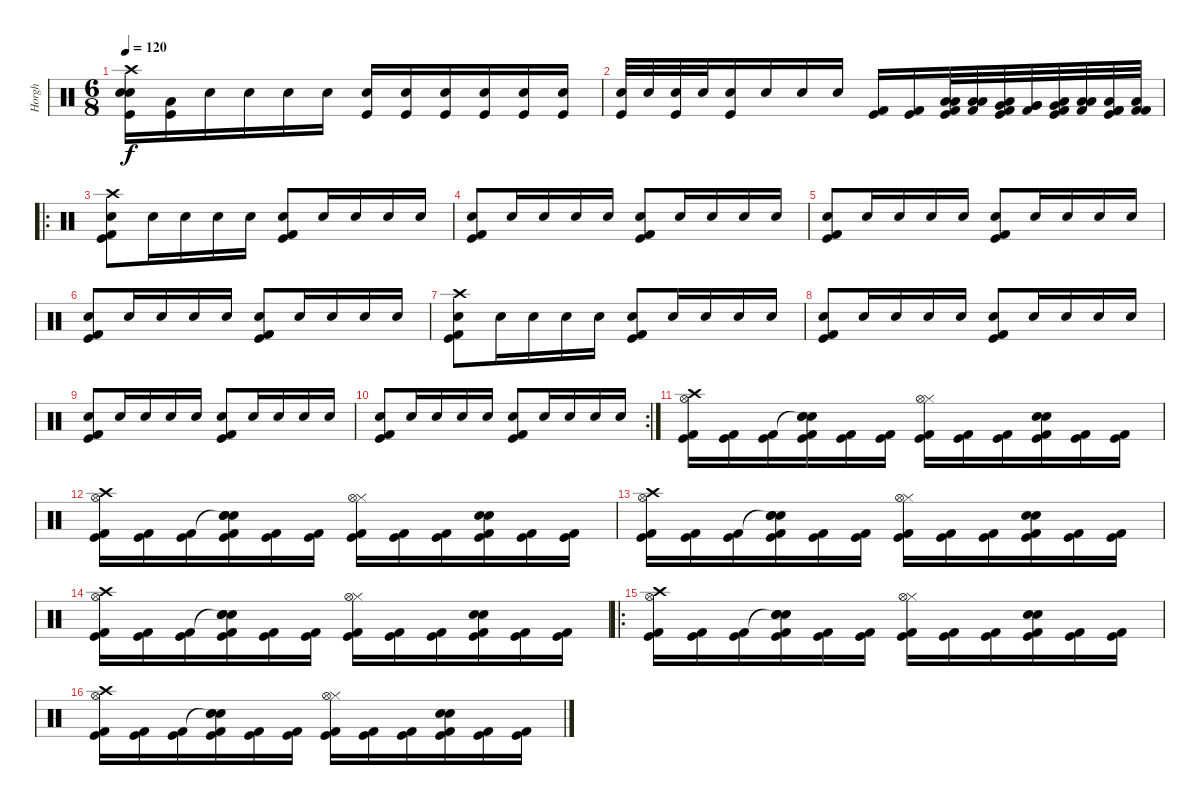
\track ("Horgh" "Horgh") {instrument percussion}
\staff {score}
\articulation defaults
\ts (6 8)
\tempo 120
\clef neutral
\ks c
("Crash high (hit)" "Snare (hit) 2" "Electric Snare (hit)" "Kick (hit)").16{dy f} ("Low Floor Tom (hit)" "Kick (hit)").16 "Electric Snare (hit)".16 "Electric Snare (hit)".16 "Electric Snare (hit)".16 "Electric Snare (hit)".16 ("Snare (hit) 2" "Kick (hit)").16 ("Snare (hit) 2" "Kick (hit)").16 ("Snare (hit) 2" "Kick (hit)").16 ("Snare (hit) 2" "Kick (hit)").16 ("Snare (hit) 2" "Kick (hit)").16 ("Snare (hit) 2" "Kick (hit)").16 |
("Electric Snare (hit)" "Kick (hit)").32 "Electric Snare (hit)".32 ("Electric Snare (hit)" "Kick (hit)").32 "Electric Snare (hit)".32 ("Electric Snare (hit)" "Kick (hit)").16 "Electric Snare (hit)".16 "Electric Snare (hit)".16 "Electric Snare (hit)".16 ("Kick (hit) 2" "Kick (hit)").16 ("Kick (hit) 2" "Kick (hit)").16 ("Low Tom (hit)" "Low Tom (hit)" "Kick (hit) 2" "Kick (hit)").32 ("Low Tom (hit)" "Low Tom (hit)" "Kick (hit) 2").32 ("Low Tom (hit)" "Very Low Tom (hit)" "Kick (hit) 2" "Kick (hit)").32 ("Very Low Tom (hit)" "Very Low Tom (hit)" "Kick (hit) 2").32 ("Very Low Tom (hit)" "Low Floor Tom (hit)" "Kick (hit) 2" "Kick (hit)").32 ("Low Floor Tom (hit)" "Low Floor Tom (hit)" "Kick (hit) 2").32 ("Low Floor Tom (hit)" "Kick (hit) 2" "Kick (hit) 2" "Kick (hit)").32 ("Low Floor Tom (hit)" "Kick (hit) 2" "Kick (hit) 2").32 |
\ro
("Crash high (hit)" "Electric Snare (hit)" "Kick (hit) 2" "Kick (hit)").8 "Electric Snare (hit)".16 "Electric Snare (hit)".16 "Electric Snare (hit)".16 "Electric Snare (hit)".16 ("Electric Snare (hit)" "Kick (hit) 2" "Kick (hit)").8 "Electric Snare (hit)".16 "Electric Snare (hit)".16 "Electric Snare (hit)".16 "Electric Snare (hit)".16 |
("Electric Snare (hit)" "Kick (hit) 2" "Kick (hit)").8 "Electric Snare (hit)".16 "Electric Snare (hit)".16 "Electric Snare (hit)".16 "Electric Snare (hit)".16 ("Electric Snare (hit)" "Kick (hit) 2" "Kick (hit)").8 "Electric Snare (hit)".16 "Electric Snare (hit)".16 "Electric Snare (hit)".16 "Electric Snare (hit)".16 |
("Electric Snare (hit)" "Kick (hit) 2" "Kick (hit)").8 "Electric Snare (hit)".16 "Electric Snare (hit)".16 "Electric Snare (hit)".16 "Electric Snare (hit)".16 ("Electric Snare (hit)" "Kick (hit) 2" "Kick (hit)").8 "Electric Snare (hit)".16 "Electric Snare (hit)".16 "Electric Snare (hit)".16 "Electric Snare (hit)".16 |
("Electric Snare (hit)" "Kick (hit) 2" "Kick (hit)").8 "Electric Snare (hit)".16 "Electric Snare (hit)".16 "Electric Snare (hit)".16 "Electric Snare (hit)".16 ("Electric Snare (hit)" "Kick (hit) 2" "Kick (hit)").8 "Electric Snare (hit)".16 "Electric Snare (hit)".16 "Electric Snare (hit)".16 "Electric Snare (hit)".16 |
("Crash high (hit)" "Electric Snare (hit)" "Kick (hit) 2" "Kick (hit)").8 "Electric Snare (hit)".16 "Electric Snare (hit)".16 "Electric Snare (hit)".16 "Electric Snare (hit)".16 ("Electric Snare (hit)" "Kick (hit) 2" "Kick (hit)").8 "Electric Snare (hit)".16 "Electric Snare (hit)".16 "Electric Snare (hit)".16 "Electric Snare (hit)".16 |
("Electric Snare (hit)" "Kick (hit) 2" "Kick (hit)").8 "Electric Snare (hit)".16 "Electric Snare (hit)".16 "Electric Snare (hit)".16 "Electric Snare (hit)".16 ("Electric Snare (hit)" "Kick (hit) 2" "Kick (hit)").8 "Electric Snare (hit)".16 "Electric Snare (hit)".16 "Electric Snare (hit)".16 "Electric Snare (hit)".16 |
("Electric Snare (hit)" "Kick (hit) 2" "Kick (hit)").8 "Electric Snare (hit)".16 "Electric Snare (hit)".16 "Electric Snare (hit)".16 "Electric Snare (hit)".16 ("Electric Snare (hit)" "Kick (hit) 2" "Kick (hit)").8 "Electric Snare (hit)".16 "Electric Snare (hit)".16 "Electric Snare (hit)".16 "Electric Snare (hit)".16 |
\rc 2
("Electric Snare (hit)" "Kick (hit) 2" "Kick (hit)").8 "Electric Snare (hit)".16 "Electric Snare (hit)".16 "Electric Snare (hit)".16 "Electric Snare (hit)".16 ("Electric Snare (hit)" "Kick (hit) 2" "Kick (hit)").8 "Electric Snare (hit)".16 "Electric Snare (hit)".16 "Electric Snare (hit)".16 "Electric Snare (hit)".16 |
("Crash high (hit)" "Hi-Hat (open)" "Kick (hit) 2" "Kick (hit)").16 ("Kick (hit) 2" "Kick (hit)").16 ("Kick (hit) 2" "Kick (hit)").16 ("Snare (hit)"{t} "Snare (hit) 2" "Electric Snare (hit)" "Kick (hit) 2" "Kick (hit)").16 ("Kick (hit) 2" "Kick (hit)").16 ("Kick (hit) 2" "Kick (hit)").16 ("Hi-Hat (closed)" "Hi-Hat (open)" "Kick (hit) 2" "Kick (hit)").16 ("Kick (hit) 2" "Kick (hit)").16 ("Kick (hit) 2" "Kick (hit)").16 ("Snare (hit) 2" "Electric Snare (hit)" "Kick (hit) 2" "Kick (hit)").16 ("Kick (hit) 2" "Kick (hit)").16 ("Kick (hit) 2" "Kick (hit)").16 |
("Crash high (hit)" "Hi-Hat (open)" "Kick (hit) 2" "Kick (hit)").16 ("Kick (hit) 2" "Kick (hit)").16 ("Kick (hit) 2" "Kick (hit)").16 ("Snare (hit)"{t} "Snare (hit) 2" "Electric Snare (hit)" "Kick (hit) 2" "Kick (hit)").16 ("Kick (hit) 2" "Kick (hit)").16 ("Kick (hit) 2" "Kick (hit)").16 ("Hi-Hat (closed)" "Hi-Hat (open)" "Kick (hit) 2" "Kick (hit)").16 ("Kick (hit) 2" "Kick (hit)").16 ("Kick (hit) 2" "Kick (hit)").16 ("Snare (hit) 2" "Electric Snare (hit)" "Kick (hit) 2" "Kick (hit)").16 ("Kick (hit) 2" "Kick (hit)").16 ("Kick (hit) 2" "Kick (hit)").16 |
("Crash high (hit)" "Hi-Hat (open)" "Kick (hit) 2" "Kick (hit)").16 ("Kick (hit) 2" "Kick (hit)").16 ("Kick (hit) 2" "Kick (hit)").16 ("Snare (hit)"{t} "Snare (hit) 2" "Electric Snare (hit)" "Kick (hit) 2" "Kick (hit)").16 ("Kick (hit) 2" "Kick (hit)").16 ("Kick (hit) 2" "Kick (hit)").16 ("Hi-Hat (closed)" "Hi-Hat (open)" "Kick (hit) 2" "Kick (hit)").16 ("Kick (hit) 2" "Kick (hit)").16 ("Kick (hit) 2" "Kick (hit)").16 ("Snare (hit) 2" "Electric Snare (hit)" "Kick (hit) 2" "Kick (hit)").16 ("Kick (hit) 2" "Kick (hit)").16 ("Kick (hit) 2" "Kick (hit)").16 |
("Crash high (hit)" "Hi-Hat (open)" "Kick (hit) 2" "Kick (hit)").16 ("Kick (hit) 2" "Kick (hit)").16 ("Kick (hit) 2" "Kick (hit)").16 ("Snare (hit)"{t} "Snare (hit) 2" "Electric Snare (hit)" "Kick (hit) 2" "Kick (hit)").16 ("Kick (hit) 2" "Kick (hit)").16 ("Kick (hit) 2" "Kick (hit)").16 ("Hi-Hat (closed)" "Hi-Hat (open)" "Kick (hit) 2" "Kick (hit)").16 ("Kick (hit) 2" "Kick (hit)").16 ("Kick (hit) 2" "Kick (hit)").16 ("Snare (hit) 2" "Electric Snare (hit)" "Kick (hit) 2" "Kick (hit)").16 ("Kick (hit) 2" "Kick (hit)").16 ("Kick (hit) 2" "Kick (hit)").16 |
\ro
("Crash high (hit)" "Hi-Hat (open)" "Kick (hit) 2" "Kick (hit)").16 ("Kick (hit) 2" "Kick (hit)").16 ("Kick (hit) 2" "Kick (hit)").16 ("Snare (hit)"{t} "Snare (hit) 2" "Electric Snare (hit)" "Kick (hit) 2" "Kick (hit)").16 ("Kick (hit) 2" "Kick (hit)").16 ("Kick (hit) 2" "Kick (hit)").16 ("Hi-Hat (closed)" "Hi-Hat (open)" "Kick (hit) 2" "Kick (hit)").16 ("Kick (hit) 2" "Kick (hit)").16 ("Kick (hit) 2" "Kick (hit)").16 ("Snare (hit) 2" "Electric Snare (hit)" "Kick (hit) 2" "Kick (hit)").16 ("Kick (hit) 2" "Kick (hit)").16 ("Kick (hit) 2" "Kick (hit)").16 |
("Crash high (hit)" "Hi-Hat (open)" "Kick (hit) 2" "Kick (hit)").16 ("Kick (hit) 2" "Kick (hit)").16 ("Kick (hit) 2" "Kick (hit)").16 ("Snare (hit)"{t} "Snare (hit) 2" "Electric Snare (hit)" "Kick (hit) 2" "Kick (hit)").16 ("Kick (hit) 2" "Kick (hit)").16 ("Kick (hit) 2" "Kick (hit)").16 ("Hi-Hat (closed)" "Hi-Hat (open)" "Kick (hit) 2" "Kick (hit)").16 ("Kick (hit) 2" "Kick (hit)").16 ("Kick (hit) 2" "Kick (hit)").16 ("Snare (hit) 2" "Electric Snare (hit)" "Kick (hit) 2" "Kick (hit)").16 ("Kick (hit) 2" "Kick (hit)").16 ("Kick (hit) 2" "Kick (hit)").16
